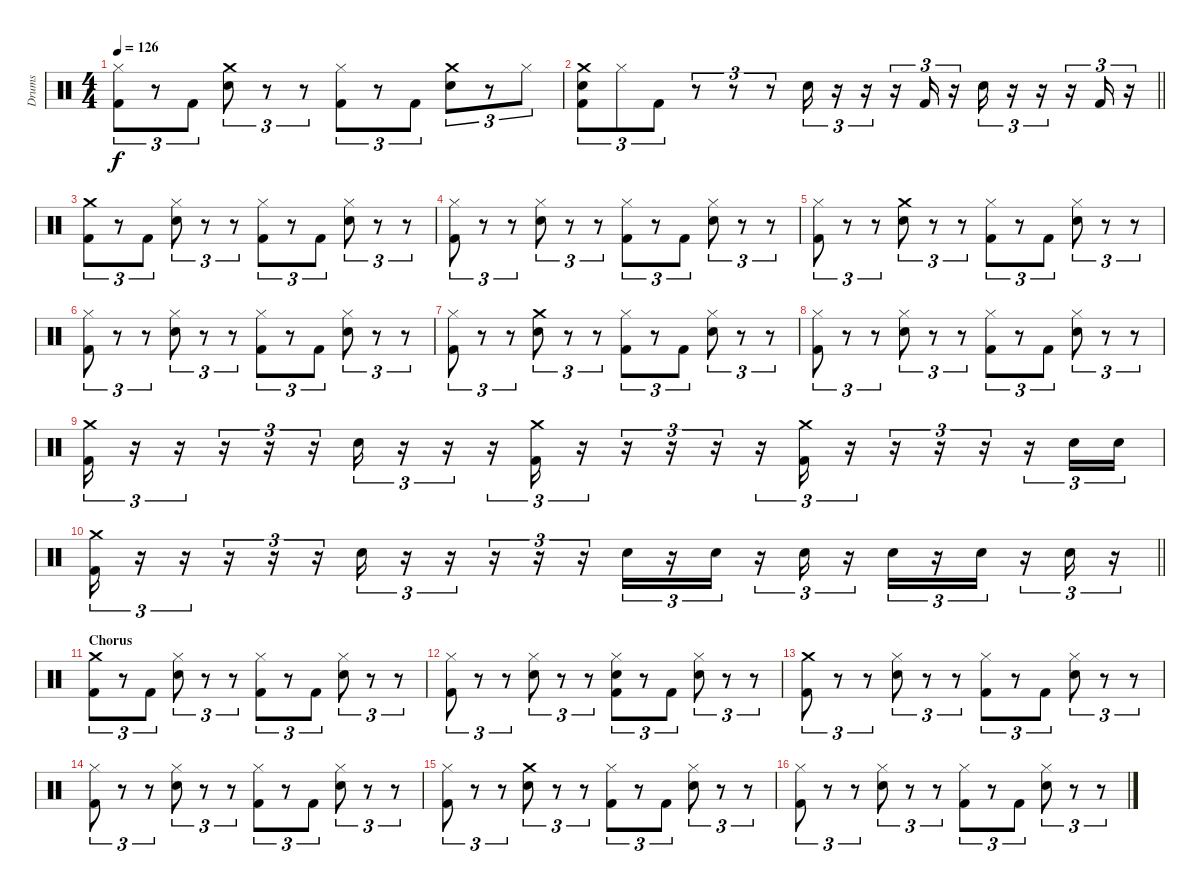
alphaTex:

\track ("Drums" "Drums") {instrument percussion}
\staff {score}
\articulation defaults
\ts (4 4)
\tempo 126
\clef neutral
\ks c
("Hi-Hat (closed)" "Kick (hit) 2").8{tu (3 2) dy f} r.8{tu (3 2)} "Kick (hit) 2".8{tu (3 2)} ("Crash medium (hit)" "Snare (hit) 2").8{tu (3 2)} r.8{tu (3 2)} r.8{tu (3 2)} ("Hi-Hat (closed)" "Kick (hit) 2").8{tu (3 2)} r.8{tu (3 2)} "Kick (hit) 2".8{tu (3 2)} ("Crash medium (hit)" "Snare (hit) 2").8{tu (3 2)} r.8{tu (3 2)} "Hi-Hat (closed)".8{tu (3 2)} |
\barLineRight lightlight
("Crash medium (hit)" "Snare (hit) 2" "Kick (hit) 2").8{tu (3 2)} "Hi-Hat (closed)".8{tu (3 2)} "Kick (hit) 2".8{tu (3 2)} r.8{tu (3 2)} r.8{tu (3 2)} r.8{tu (3 2)} "Snare (hit) 2".16{tu (3 2)} r.16{tu (3 2)} r.16{tu (3 2)} r.16{tu (3 2)} "Kick (hit) 2".16{tu (3 2)} r.16{tu (3 2)} "Snare (hit) 2".16{tu (3 2)} r.16{tu (3 2)} r.16{tu (3 2)} r.16{tu (3 2)} "Kick (hit) 2".16{tu (3 2)} r.16{tu (3 2)} |
("Crash medium (hit)" "Kick (hit) 2").8{tu (3 2)} r.8{tu (3 2)} "Kick (hit) 2".8{tu (3 2)} ("Hi-Hat (closed)" "Snare (hit) 2").8{tu (3 2)} r.8{tu (3 2)} r.8{tu (3 2)} ("Hi-Hat (closed)" "Kick (hit) 2").8{tu (3 2)} r.8{tu (3 2)} "Kick (hit) 2".8{tu (3 2)} ("Hi-Hat (closed)" "Snare (hit) 2").8{tu (3 2)} r.8{tu (3 2)} r.8{tu (3 2)} |
("Hi-Hat (closed)" "Kick (hit) 2").8{tu (3 2)} r.8{tu (3 2)} r.8{tu (3 2)} ("Hi-Hat (closed)" "Snare (hit) 2").8{tu (3 2)} r.8{tu (3 2)} r.8{tu (3 2)} ("Hi-Hat (closed)" "Kick (hit) 2").8{tu (3 2)} r.8{tu (3 2)} "Kick (hit) 2".8{tu (3 2)} ("Hi-Hat (closed)" "Snare (hit) 2").8{tu (3 2)} r.8{tu (3 2)} r.8{tu (3 2)} |
("Hi-Hat (closed)" "Kick (hit) 2").8{tu (3 2)} r.8{tu (3 2)} r.8{tu (3 2)} ("Crash medium (hit)" "Snare (hit) 2").8{tu (3 2)} r.8{tu (3 2)} r.8{tu (3 2)} ("Hi-Hat (closed)" "Kick (hit) 2").8{tu (3 2)} r.8{tu (3 2)} "Kick (hit) 2".8{tu (3 2)} ("Hi-Hat (closed)" "Snare (hit) 2").8{tu (3 2)} r.8{tu (3 2)} r.8{tu (3 2)} |
("Hi-Hat (closed)" "Kick (hit) 2").8{tu (3 2)} r.8{tu (3 2)} r.8{tu (3 2)} ("Hi-Hat (closed)" "Snare (hit) 2").8{tu (3 2)} r.8{tu (3 2)} r.8{tu (3 2)} ("Hi-Hat (closed)" "Kick (hit) 2").8{tu (3 2)} r.8{tu (3 2)} "Kick (hit) 2".8{tu (3 2)} ("Hi-Hat (closed)" "Snare (hit) 2").8{tu (3 2)} r.8{tu (3 2)} r.8{tu (3 2)} |
("Hi-Hat (closed)" "Kick (hit) 2").8{tu (3 2)} r.8{tu (3 2)} r.8{tu (3 2)} ("Crash medium (hit)" "Snare (hit) 2").8{tu (3 2)} r.8{tu (3 2)} r.8{tu (3 2)} ("Hi-Hat (closed)" "Kick (hit) 2").8{tu (3 2)} r.8{tu (3 2)} "Kick (hit) 2".8{tu (3 2)} ("Hi-Hat (closed)" "Snare (hit) 2").8{tu (3 2)} r.8{tu (3 2)} r.8{tu (3 2)} |
("Hi-Hat (closed)" "Kick (hit) 2").8{tu (3 2)} r.8{tu (3 2)} r.8{tu (3 2)} ("Hi-Hat (closed)" "Snare (hit) 2").8{tu (3 2)} r.8{tu (3 2)} r.8{tu (3 2)} ("Hi-Hat (closed)" "Kick (hit) 2").8{tu (3 2)} r.8{tu (3 2)} "Kick (hit) 2".8{tu (3 2)} ("Hi-Hat (closed)" "Snare (hit) 2").8{tu (3 2)} r.8{tu (3 2)} r.8{tu (3 2)} |
("Crash medium (hit)" "Kick (hit) 2").16{tu (3 2)} r.16{tu (3 2)} r.16{tu (3 2)} r.16{tu (3 2)} r.16{tu (3 2)} r.16{tu (3 2)} "Snare (hit) 2".16{tu (3 2)} r.16{tu (3 2)} r.16{tu (3 2)} r.16{tu (3 2)} ("Crash medium (hit)" "Kick (hit) 2").16{tu (3 2)} r.16{tu (3 2)} r.16{tu (3 2)} r.16{tu (3 2)} r.16{tu (3 2)} r.16{tu (3 2)} ("Crash medium (hit)" "Kick (hit) 2").16{tu (3 2)} r.16{tu (3 2)} r.16{tu (3 2)} r.16{tu (3 2)} r.16{tu (3 2)} r.16{tu (3 2)} "Snare (hit) 2".16{tu (3 2)} "Snare (hit) 2".16{tu (3 2)} |
\barLineRight lightlight
("Crash medium (hit)" "Kick (hit) 2").16{tu (3 2)} r.16{tu (3 2)} r.16{tu (3 2)} r.16{tu (3 2)} r.16{tu (3 2)} r.16{tu (3 2)} "Snare (hit) 2".16{tu (3 2)} r.16{tu (3 2)} r.16{tu (3 2)} r.16{tu (3 2)} r.16{tu (3 2)} r.16{tu (3 2)} "Snare (hit) 2".16{tu (3 2)} r.16{tu (3 2)} "Snare (hit) 2".16{tu (3 2)} r.16{tu (3 2)} "Snare (hit) 2".16{tu (3 2)} r.16{tu (3 2)} "Snare (hit) 2".16{tu (3 2)} r.16{tu (3 2)} "Snare (hit) 2".16{tu (3 2)} r.16{tu (3 2)} "Snare (hit) 2".16{tu (3 2)} r.16{tu (3 2)} |
\section ("" "Chorus")
("Crash medium (hit)" "Kick (hit) 2").8{tu (3 2)} r.8{tu (3 2)} "Kick (hit) 2".8{tu (3 2)} ("Hi-Hat (closed)" "Snare (hit) 2").8{tu (3 2)} r.8{tu (3 2)} r.8{tu (3 2)} ("Hi-Hat (closed)" "Kick (hit) 2").8{tu (3 2)} r.8{tu (3 2)} "Kick (hit) 2".8{tu (3 2)} ("Hi-Hat (closed)" "Snare (hit) 2").8{tu (3 2)} r.8{tu (3 2)} r.8{tu (3 2)} |
("Hi-Hat (closed)" "Kick (hit) 2").8{tu (3 2)} r.8{tu (3 2)} r.8{tu (3 2)} ("Hi-Hat (closed)" "Snare (hit) 2").8{tu (3 2)} r.8{tu (3 2)} r.8{tu (3 2)} ("Hi-Hat (closed)" "Snare (hit) 2" "Kick (hit) 2").8{tu (3 2)} r.8{tu (3 2)} "Kick (hit) 2".8{tu (3 2)} ("Hi-Hat (closed)" "Snare (hit) 2").8{tu (3 2)} r.8{tu (3 2)} r.8{tu (3 2)} |
("Crash medium (hit)" "Kick (hit) 2").8{tu (3 2)} r.8{tu (3 2)} r.8{tu (3 2)} ("Hi-Hat (closed)" "Snare (hit) 2").8{tu (3 2)} r.8{tu (3 2)} r.8{tu (3 2)} ("Hi-Hat (closed)" "Kick (hit) 2").8{tu (3 2)} r.8{tu (3 2)} "Kick (hit) 2".8{tu (3 2)} ("Hi-Hat (closed)" "Snare (hit) 2").8{tu (3 2)} r.8{tu (3 2)} r.8{tu (3 2)} |
("Hi-Hat (closed)" "Kick (hit) 2").8{tu (3 2)} r.8{tu (3 2)} r.8{tu (3 2)} ("Hi-Hat (closed)" "Snare (hit) 2").8{tu (3 2)} r.8{tu (3 2)} r.8{tu (3 2)} ("Hi-Hat (closed)" "Kick (hit) 2").8{tu (3 2)} r.8{tu (3 2)} "Kick (hit) 2".8{tu (3 2)} ("Hi-Hat (closed)" "Snare (hit) 2").8{tu (3 2)} r.8{tu (3 2)} r.8{tu (3 2)} |
("Hi-Hat (closed)" "Kick (hit) 2").8{tu (3 2)} r.8{tu (3 2)} r.8{tu (3 2)} ("Crash medium (hit)" "Snare (hit) 2").8{tu (3 2)} r.8{tu (3 2)} r.8{tu (3 2)} ("Hi-Hat (closed)" "Kick (hit) 2").8{tu (3 2)} r.8{tu (3 2)} "Kick (hit) 2".8{tu (3 2)} ("Hi-Hat (closed)" "Snare (hit) 2").8{tu (3 2)} r.8{tu (3 2)} r.8{tu (3 2)} |
("Hi-Hat (closed)" "Kick (hit) 2").8{tu (3 2)} r.8{tu (3 2)} r.8{tu (3 2)} ("Hi-Hat (closed)" "Snare (hit) 2").8{tu (3 2)} r.8{tu (3 2)} r.8{tu (3 2)} ("Hi-Hat (closed)" "Kick (hit) 2").8{tu (3 2)} r.8{tu (3 2)} "Kick (hit) 2".8{tu (3 2)} ("Hi-Hat (closed)" "Snare (hit) 2").8{tu (3 2)} r.8{tu (3 2)} r.8{tu (3 2)}
